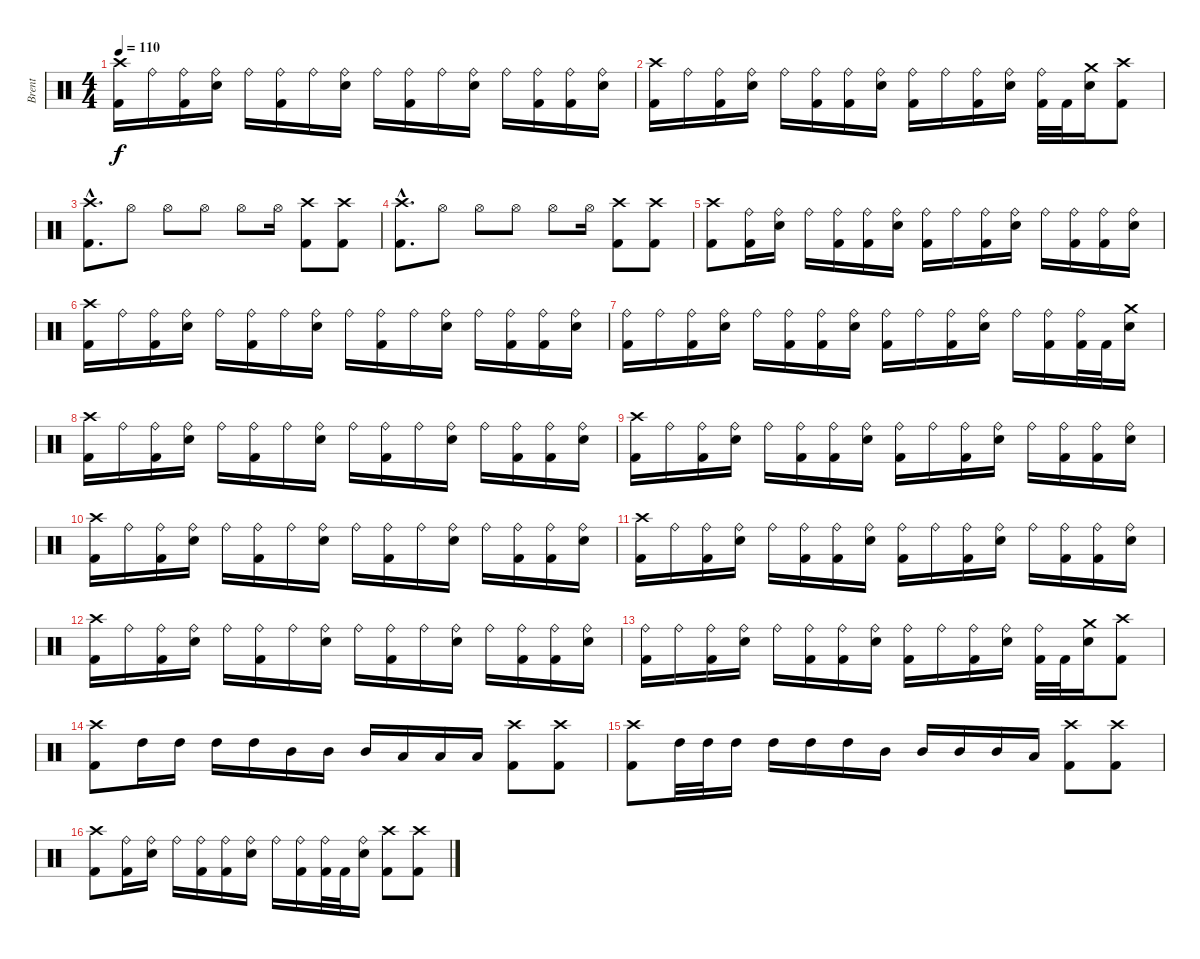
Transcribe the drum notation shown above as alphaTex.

\track ("Brent" "Brent") {instrument percussion}
\staff {score}
\articulation defaults
\ts (4 4)
\tempo 110
\clef neutral
\ks c
("Crash high (hit)" "Kick (hit) 2").16{dy f} "Ride (bell)".16 ("Ride (bell)" "Kick (hit) 2").16 ("Ride (bell)" "Snare (hit) 2").16 "Ride (bell)".16 ("Ride (bell)" "Kick (hit) 2").16 "Ride (bell)".16 ("Ride (bell)" "Snare (hit) 2").16 "Ride (bell)".16 ("Ride (bell)" "Kick (hit) 2").16 "Ride (bell)".16 ("Ride (bell)" "Snare (hit) 2").16 "Ride (bell)".16 ("Ride (bell)" "Kick (hit) 2").16 ("Ride (bell)" "Kick (hit) 2").16 ("Ride (bell)" "Snare (hit) 2").16 |
("Crash high (hit)" "Kick (hit) 2").16 "Ride (bell)".16 ("Ride (bell)" "Kick (hit) 2").16 ("Ride (bell)" "Snare (hit) 2").16 "Ride (bell)".16 ("Ride (bell)" "Kick (hit) 2").16 ("Ride (bell)" "Kick (hit) 2").16 ("Ride (bell)" "Snare (hit) 2").16 ("Ride (bell)" "Kick (hit) 2").16 "Ride (bell)".16 ("Ride (bell)" "Kick (hit) 2").16 ("Ride (bell)" "Snare (hit) 2").16 ("Ride (bell)" "Kick (hit) 2").32 "Kick (hit) 2".32 ("Crash medium (hit)" "Snare (hit) 2").16 ("Crash high (hit)" "Kick (hit) 2").8 |
("Crash high (hit)"{hac} "Kick (hit) 2"{hac}).8{d} "Hi-Hat (open)".8 "Hi-Hat (open)".8 "Hi-Hat (open)".8 "Hi-Hat (open)".8 "Hi-Hat (open)".16 ("Crash high (hit)" "Kick (hit) 2").8 ("Crash high (hit)" "Kick (hit) 2").8 |
("Crash high (hit)"{hac} "Kick (hit) 2"{hac}).8{d} "Hi-Hat (open)".8 "Hi-Hat (open)".8 "Hi-Hat (open)".8 "Hi-Hat (open)".8 "Hi-Hat (open)".16 ("Crash high (hit)" "Kick (hit) 2").8 ("Crash high (hit)" "Kick (hit) 2").8 |
("Crash high (hit)" "Kick (hit) 2").8 ("Ride (bell)" "Kick (hit) 2").16 ("Ride (bell)" "Snare (hit) 2").16 "Ride (bell)".16 ("Ride (bell)" "Kick (hit) 2").16 ("Ride (bell)" "Kick (hit) 2").16 ("Ride (bell)" "Snare (hit) 2").16 ("Ride (bell)" "Kick (hit) 2").16 "Ride (bell)".16 ("Ride (bell)" "Kick (hit) 2").16 ("Ride (bell)" "Snare (hit) 2").16 "Ride (bell)".16 ("Ride (bell)" "Kick (hit) 2").16 ("Ride (bell)" "Kick (hit) 2").16 ("Ride (bell)" "Snare (hit) 2").16 |
("Crash high (hit)" "Kick (hit) 2").16 "Ride (bell)".16 ("Ride (bell)" "Kick (hit) 2").16 ("Ride (bell)" "Snare (hit) 2").16 "Ride (bell)".16 ("Ride (bell)" "Kick (hit) 2").16 "Ride (bell)".16 ("Ride (bell)" "Snare (hit) 2").16 "Ride (bell)".16 ("Ride (bell)" "Kick (hit) 2").16 "Ride (bell)".16 ("Ride (bell)" "Snare (hit) 2").16 "Ride (bell)".16 ("Ride (bell)" "Kick (hit) 2").16 ("Ride (bell)" "Kick (hit) 2").16 ("Ride (bell)" "Snare (hit) 2").16 |
("Ride (bell)" "Kick (hit) 2").16 "Ride (bell)".16 ("Ride (bell)" "Kick (hit) 2").16 ("Ride (bell)" "Snare (hit) 2").16 "Ride (bell)".16 ("Ride (bell)" "Kick (hit) 2").16 ("Ride (bell)" "Kick (hit) 2").16 ("Ride (bell)" "Snare (hit) 2").16 ("Ride (bell)" "Kick (hit) 2").16 "Ride (bell)".16 ("Ride (bell)" "Kick (hit) 2").16 ("Ride (bell)" "Snare (hit) 2").16 "Ride (bell)".16 ("Ride (bell)" "Kick (hit) 2").16 ("Ride (bell)" "Kick (hit) 2").32 "Kick (hit) 2".32 ("Crash medium (hit)" "Snare (hit) 2").16 |
("Crash high (hit)" "Kick (hit) 2").16 "Ride (bell)".16 ("Ride (bell)" "Kick (hit) 2").16 ("Ride (bell)" "Snare (hit) 2").16 "Ride (bell)".16 ("Ride (bell)" "Kick (hit) 2").16 "Ride (bell)".16 ("Ride (bell)" "Snare (hit) 2").16 "Ride (bell)".16 ("Ride (bell)" "Kick (hit) 2").16 "Ride (bell)".16 ("Ride (bell)" "Snare (hit) 2").16 "Ride (bell)".16 ("Ride (bell)" "Kick (hit) 2").16 ("Ride (bell)" "Kick (hit) 2").16 ("Ride (bell)" "Snare (hit) 2").16 |
("Crash high (hit)" "Kick (hit) 2").16 "Ride (bell)".16 ("Ride (bell)" "Kick (hit) 2").16 ("Ride (bell)" "Snare (hit) 2").16 "Ride (bell)".16 ("Ride (bell)" "Kick (hit) 2").16 ("Ride (bell)" "Kick (hit) 2").16 ("Ride (bell)" "Snare (hit) 2").16 ("Ride (bell)" "Kick (hit) 2").16 "Ride (bell)".16 ("Ride (bell)" "Kick (hit) 2").16 ("Ride (bell)" "Snare (hit) 2").16 "Ride (bell)".16 ("Ride (bell)" "Kick (hit) 2").16 ("Ride (bell)" "Kick (hit) 2").16 ("Ride (bell)" "Snare (hit) 2").16 |
("Crash high (hit)" "Kick (hit) 2").16 "Ride (bell)".16 ("Ride (bell)" "Kick (hit) 2").16 ("Ride (bell)" "Snare (hit) 2").16 "Ride (bell)".16 ("Ride (bell)" "Kick (hit) 2").16 "Ride (bell)".16 ("Ride (bell)" "Snare (hit) 2").16 "Ride (bell)".16 ("Ride (bell)" "Kick (hit) 2").16 "Ride (bell)".16 ("Ride (bell)" "Snare (hit) 2").16 "Ride (bell)".16 ("Ride (bell)" "Kick (hit) 2").16 ("Ride (bell)" "Kick (hit) 2").16 ("Ride (bell)" "Snare (hit) 2").16 |
("Crash high (hit)" "Kick (hit) 2").16 "Ride (bell)".16 ("Ride (bell)" "Kick (hit) 2").16 ("Ride (bell)" "Snare (hit) 2").16 "Ride (bell)".16 ("Ride (bell)" "Kick (hit) 2").16 ("Ride (bell)" "Kick (hit) 2").16 ("Ride (bell)" "Snare (hit) 2").16 ("Ride (bell)" "Kick (hit) 2").16 "Ride (bell)".16 ("Ride (bell)" "Kick (hit) 2").16 ("Ride (bell)" "Snare (hit) 2").16 "Ride (bell)".16 ("Ride (bell)" "Kick (hit) 2").16 ("Ride (bell)" "Kick (hit) 2").16 ("Ride (bell)" "Snare (hit) 2").16 |
("Crash high (hit)" "Kick (hit) 2").16 "Ride (bell)".16 ("Ride (bell)" "Kick (hit) 2").16 ("Ride (bell)" "Snare (hit) 2").16 "Ride (bell)".16 ("Ride (bell)" "Kick (hit) 2").16 "Ride (bell)".16 ("Ride (bell)" "Snare (hit) 2").16 "Ride (bell)".16 ("Ride (bell)" "Kick (hit) 2").16 "Ride (bell)".16 ("Ride (bell)" "Snare (hit) 2").16 "Ride (bell)".16 ("Ride (bell)" "Kick (hit) 2").16 ("Ride (bell)" "Kick (hit) 2").16 ("Ride (bell)" "Snare (hit) 2").16 |
("Ride (bell)" "Kick (hit) 2").16 "Ride (bell)".16 ("Ride (bell)" "Kick (hit) 2").16 ("Ride (bell)" "Snare (hit) 2").16 "Ride (bell)".16 ("Ride (bell)" "Kick (hit) 2").16 ("Ride (bell)" "Kick (hit) 2").16 ("Ride (bell)" "Snare (hit) 2").16 ("Ride (bell)" "Kick (hit) 2").16 "Ride (bell)".16 ("Ride (bell)" "Kick (hit) 2").16 ("Ride (bell)" "Snare (hit) 2").16 ("Ride (bell)" "Kick (hit) 2").32 "Kick (hit) 2".32 ("Crash medium (hit)" "Snare (hit) 2").16 ("Crash high (hit)" "Kick (hit) 2").8 |
("Crash high (hit)" "Kick (hit) 2").8 "High Tom (hit)".16 "High Tom (hit)".16 "High Tom (hit)".16 "High Tom (hit)".16 "Mid Tom (hit)".16 "Mid Tom (hit)".16 "Mid Tom (hit)".16 "Low Tom (hit)".16 "Low Tom (hit)".16 "Low Tom (hit)".16 ("Crash high (hit)" "Kick (hit) 2").8 ("Crash high (hit)" "Kick (hit) 2").8 |
("Crash high (hit)" "Kick (hit) 2").8 "High Tom (hit)".32 "High Tom (hit)".32 "High Tom (hit)".16 "High Tom (hit)".16 "High Tom (hit)".16 "High Tom (hit)".16 "Mid Tom (hit)".16 "Mid Tom (hit)".16 "Mid Tom (hit)".16 "Mid Tom (hit)".16 "Low Tom (hit)".16 ("Crash high (hit)" "Kick (hit) 2").8 ("Crash high (hit)" "Kick (hit) 2").8 |
("Crash high (hit)" "Kick (hit) 2").8 ("Ride (bell)" "Kick (hit) 2").16 ("Ride (bell)" "Snare (hit) 2").16 "Ride (bell)".16 ("Ride (bell)" "Kick (hit) 2").16 ("Ride (bell)" "Kick (hit) 2").16 ("Ride (bell)" "Snare (hit) 2").16 "Ride (bell)".16 ("Ride (bell)" "Kick (hit) 2").16 ("Ride (bell)" "Kick (hit) 2").32 "Kick (hit) 2".32 ("Ride (bell)" "Snare (hit) 2").16 ("Crash high (hit)" "Kick (hit) 2").8 ("Crash high (hit)" "Kick (hit) 2").8
